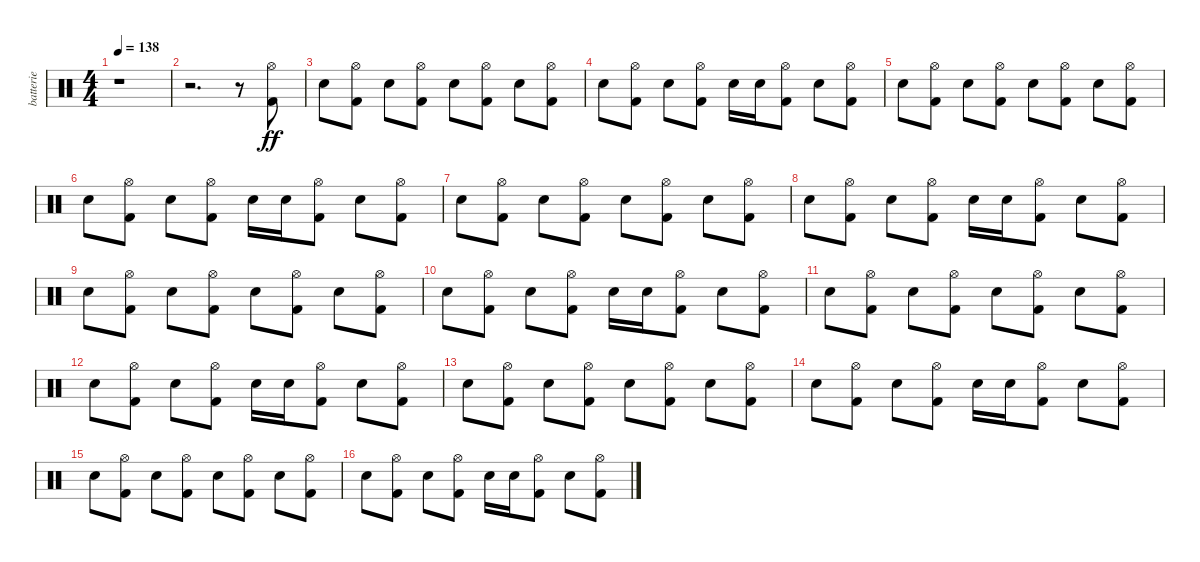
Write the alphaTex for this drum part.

\track ("batterie" "batterie") {instrument percussion}
\staff {score}
\articulation defaults
\ts (4 4)
\tempo 138
\clef neutral
\ks c
r.1{dy ff} |
r.2{d} r.8 ("Hi-Hat (open)" "Kick (hit) 2").8 |
"Snare (hit) 2".8 ("Hi-Hat (open)" "Kick (hit) 2").8 "Snare (hit) 2".8 ("Hi-Hat (open)" "Kick (hit) 2").8 "Snare (hit) 2".8 ("Hi-Hat (open)" "Kick (hit) 2").8 "Snare (hit) 2".8 ("Hi-Hat (open)" "Kick (hit) 2").8 |
"Snare (hit) 2".8 ("Hi-Hat (open)" "Kick (hit) 2").8 "Snare (hit) 2".8 ("Hi-Hat (open)" "Kick (hit) 2").8 "Snare (hit) 2".16 "Snare (hit) 2".16 ("Hi-Hat (open)" "Kick (hit) 2").8 "Snare (hit) 2".8 ("Hi-Hat (open)" "Kick (hit) 2").8 |
"Snare (hit) 2".8 ("Hi-Hat (open)" "Kick (hit) 2").8 "Snare (hit) 2".8 ("Hi-Hat (open)" "Kick (hit) 2").8 "Snare (hit) 2".8 ("Hi-Hat (open)" "Kick (hit) 2").8 "Snare (hit) 2".8 ("Hi-Hat (open)" "Kick (hit) 2").8 |
"Snare (hit) 2".8 ("Hi-Hat (open)" "Kick (hit) 2").8 "Snare (hit) 2".8 ("Hi-Hat (open)" "Kick (hit) 2").8 "Snare (hit) 2".16 "Snare (hit) 2".16 ("Hi-Hat (open)" "Kick (hit) 2").8 "Snare (hit) 2".8 ("Hi-Hat (open)" "Kick (hit) 2").8 |
"Snare (hit) 2".8 ("Hi-Hat (open)" "Kick (hit) 2").8 "Snare (hit) 2".8 ("Hi-Hat (open)" "Kick (hit) 2").8 "Snare (hit) 2".8 ("Hi-Hat (open)" "Kick (hit) 2").8 "Snare (hit) 2".8 ("Hi-Hat (open)" "Kick (hit) 2").8 |
"Snare (hit) 2".8 ("Hi-Hat (open)" "Kick (hit) 2").8 "Snare (hit) 2".8 ("Hi-Hat (open)" "Kick (hit) 2").8 "Snare (hit) 2".16 "Snare (hit) 2".16 ("Hi-Hat (open)" "Kick (hit) 2").8 "Snare (hit) 2".8 ("Hi-Hat (open)" "Kick (hit) 2").8 |
"Snare (hit) 2".8 ("Hi-Hat (open)" "Kick (hit) 2").8 "Snare (hit) 2".8 ("Hi-Hat (open)" "Kick (hit) 2").8 "Snare (hit) 2".8 ("Hi-Hat (open)" "Kick (hit) 2").8 "Snare (hit) 2".8 ("Hi-Hat (open)" "Kick (hit) 2").8 |
"Snare (hit) 2".8 ("Hi-Hat (open)" "Kick (hit) 2").8 "Snare (hit) 2".8 ("Hi-Hat (open)" "Kick (hit) 2").8 "Snare (hit) 2".16 "Snare (hit) 2".16 ("Hi-Hat (open)" "Kick (hit) 2").8 "Snare (hit) 2".8 ("Hi-Hat (open)" "Kick (hit) 2").8 |
"Snare (hit) 2".8 ("Hi-Hat (open)" "Kick (hit) 2").8 "Snare (hit) 2".8 ("Hi-Hat (open)" "Kick (hit) 2").8 "Snare (hit) 2".8 ("Hi-Hat (open)" "Kick (hit) 2").8 "Snare (hit) 2".8 ("Hi-Hat (open)" "Kick (hit) 2").8 |
"Snare (hit) 2".8 ("Hi-Hat (open)" "Kick (hit) 2").8 "Snare (hit) 2".8 ("Hi-Hat (open)" "Kick (hit) 2").8 "Snare (hit) 2".16 "Snare (hit) 2".16 ("Hi-Hat (open)" "Kick (hit) 2").8 "Snare (hit) 2".8 ("Hi-Hat (open)" "Kick (hit) 2").8 |
"Snare (hit) 2".8 ("Hi-Hat (open)" "Kick (hit) 2").8 "Snare (hit) 2".8 ("Hi-Hat (open)" "Kick (hit) 2").8 "Snare (hit) 2".8 ("Hi-Hat (open)" "Kick (hit) 2").8 "Snare (hit) 2".8 ("Hi-Hat (open)" "Kick (hit) 2").8 |
"Snare (hit) 2".8 ("Hi-Hat (open)" "Kick (hit) 2").8 "Snare (hit) 2".8 ("Hi-Hat (open)" "Kick (hit) 2").8 "Snare (hit) 2".16 "Snare (hit) 2".16 ("Hi-Hat (open)" "Kick (hit) 2").8 "Snare (hit) 2".8 ("Hi-Hat (open)" "Kick (hit) 2").8 |
"Snare (hit) 2".8 ("Hi-Hat (open)" "Kick (hit) 2").8 "Snare (hit) 2".8 ("Hi-Hat (open)" "Kick (hit) 2").8 "Snare (hit) 2".8 ("Hi-Hat (open)" "Kick (hit) 2").8 "Snare (hit) 2".8 ("Hi-Hat (open)" "Kick (hit) 2").8 |
"Snare (hit) 2".8 ("Hi-Hat (open)" "Kick (hit) 2").8 "Snare (hit) 2".8 ("Hi-Hat (open)" "Kick (hit) 2").8 "Snare (hit) 2".16 "Snare (hit) 2".16 ("Hi-Hat (open)" "Kick (hit) 2").8 "Snare (hit) 2".8 ("Hi-Hat (open)" "Kick (hit) 2").8
